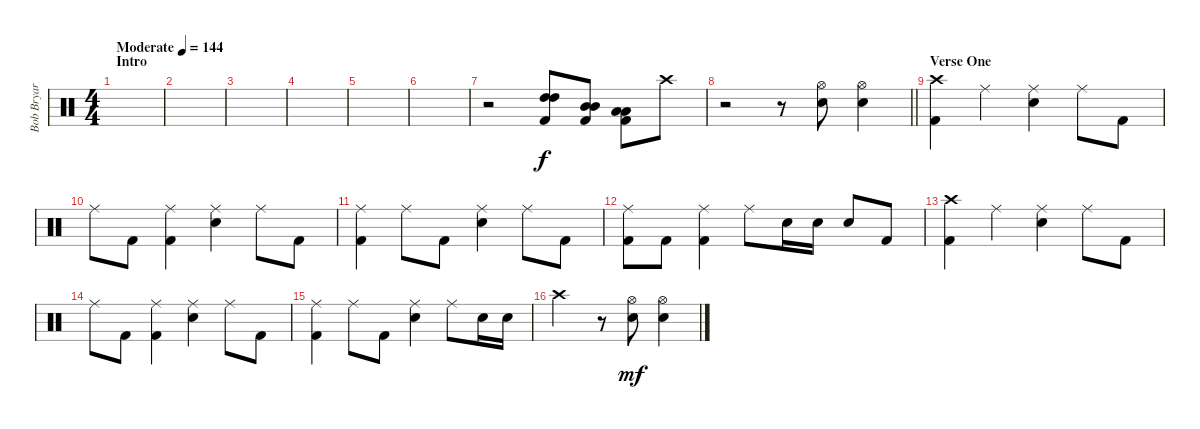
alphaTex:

\track ("Bob Bryar" "Bob Bryar") {instrument percussion}
\staff {score}
\articulation defaults
\ts (4 4)
\section ("" "Intro")
\tempo (144 "Moderate")
\clef neutral
\ks c
|
|
|
|
|
|
r.2 ("Kick (hit) 2" "High Tom (hit)" "High Tom (hit)").8 ("Mid Tom (hit)" "Kick (hit) 2" "Mid Tom (hit)").8 ("Low Tom (hit)" "Low Tom (hit)" "Kick (hit) 2").8 "Crash high (hit)".8 |
\barLineRight lightlight
r.2 r.8 ("Hi-Hat (open)" "Snare (hit) 2").8 ("Hi-Hat (open)" "Snare (hit) 2").4 |
\section ("" "Verse One")
("Crash high (hit)" "Kick (hit) 2").4{dy f} "Ride (middle)".4 ("Snare (hit) 2" "Ride (middle)").4 "Ride (middle)".8 "Kick (hit) 2".8 |
"Ride (middle)".8 "Kick (hit) 2".8 ("Kick (hit) 2" "Ride (middle)").4 ("Ride (middle)" "Snare (hit) 2").4 "Ride (middle)".8 "Kick (hit) 2".8 |
("Ride (middle)" "Kick (hit) 2").4 "Ride (middle)".8 "Kick (hit) 2".8 ("Ride (middle)" "Snare (hit) 2").4 "Ride (middle)".8 "Kick (hit) 2".8 |
("Kick (hit) 2" "Ride (middle)").8 "Kick (hit) 2".8 ("Kick (hit) 2" "Ride (middle)").4 "Ride (middle)".8 "Snare (hit) 2".16 "Snare (hit) 2".16 "Snare (hit) 2".8 "Kick (hit) 2".8 |
("Crash high (hit)" "Kick (hit) 2").4 "Ride (middle)".4 ("Snare (hit) 2" "Ride (middle)").4 "Ride (middle)".8 "Kick (hit) 2".8 |
"Ride (middle)".8 "Kick (hit) 2".8 ("Kick (hit) 2" "Ride (middle)").4 ("Ride (middle)" "Snare (hit) 2").4 "Ride (middle)".8 "Kick (hit) 2".8 |
("Ride (middle)" "Kick (hit) 2").4 "Ride (middle)".8 "Kick (hit) 2".8 ("Ride (middle)" "Snare (hit) 2").4 "Ride (middle)".8 "Snare (hit) 2".16 "Snare (hit) 2".16 |
"Crash high (hit)".2 r.8 ("Hi-Hat (open)" "Snare (hit) 2").8{dy mf} ("Hi-Hat (open)" "Snare (hit) 2").4
